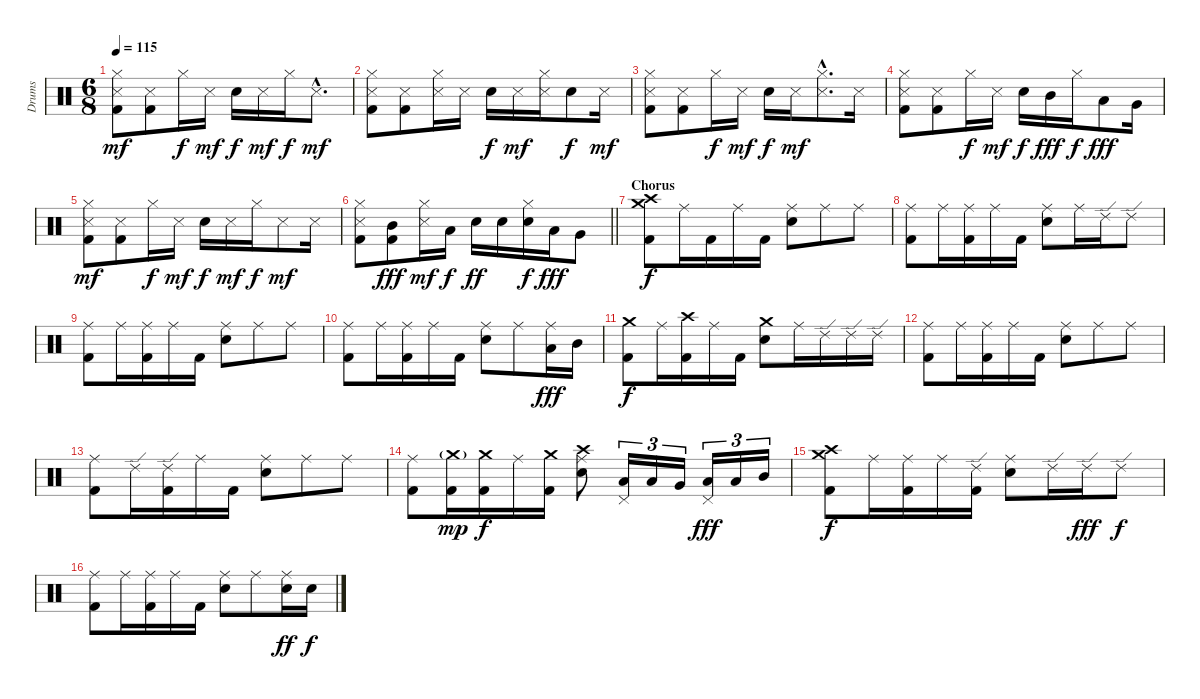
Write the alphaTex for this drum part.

\track ("Drums" "Drums") {instrument percussion}
\staff {score}
\articulation defaults
\ts (6 8)
\tempo 115
\clef neutral
\ks c
("Hi-Hat (closed)" "Snare (side stick) 3" "Kick (hit) 2").8{dy mf} ("Snare (side stick) 3" "Kick (hit) 2").8 "Hi-Hat (closed)".16{dy f} "Snare (side stick) 3".16{dy mf} "Electric Snare (hit)".16{dy f} "Snare (side stick) 3".16{dy mf} "Hi-Hat (closed)".16{dy f} "Snare (side stick) 3"{hac}.8{d dy mf} |
("Hi-Hat (closed)" "Snare (side stick) 3" "Kick (hit) 2").8 ("Snare (side stick) 3" "Kick (hit) 2").8 ("Hi-Hat (closed)" "Snare (side stick) 3").16 "Snare (side stick) 3".16 "Electric Snare (hit)".16{dy f} "Snare (side stick) 3".16{dy mf} ("Hi-Hat (closed)" "Snare (side stick) 3").16 "Electric Snare (hit)".8{dy f} "Snare (side stick) 3".16{dy mf} |
("Hi-Hat (closed)" "Snare (side stick) 3" "Kick (hit) 2").8 ("Snare (side stick) 3" "Kick (hit) 2").8 "Hi-Hat (closed)".16{dy f} "Snare (side stick) 3".16{dy mf} "Electric Snare (hit)".16{dy f} "Snare (side stick) 3".16{dy mf} ("Hi-Hat (closed)"{hac} "Snare (side stick) 3"{hac}).8{d} "Snare (side stick) 3".16 |
("Hi-Hat (closed)" "Snare (side stick) 3" "Kick (hit) 2").8 ("Snare (side stick) 3" "Kick (hit) 2").8 "Hi-Hat (closed)".16{dy f} "Snare (side stick) 3".16{dy mf} "Electric Snare (hit)".16{dy f} "Mid Tom (hit)".16{dy fff} "Hi-Hat (closed)".16{dy f} "Low Tom (hit)".8{dy fff} "Very Low Tom (hit)".16 |
("Hi-Hat (closed)" "Snare (side stick) 3" "Kick (hit) 2").8{dy mf} ("Snare (side stick) 3" "Kick (hit) 2").8 "Hi-Hat (closed)".16{dy f} "Snare (side stick) 3".16{dy mf} "Electric Snare (hit)".16{dy f} "Snare (side stick) 3".16{dy mf} "Hi-Hat (closed)".16{dy f} "Snare (side stick) 3".8{dy mf} "Snare (side stick) 3".16 |
\barLineRight lightlight
("Hi-Hat (closed)" "Snare (side stick) 3" "Kick (hit) 2").8 ("Mid Tom (hit)" "Kick (hit) 2").8{dy fff} ("Hi-Hat (closed)" "Snare (side stick) 3").16{dy mf} "Low Tom (hit)".16{dy f} "Electric Snare (hit)".16{dy ff} "Electric Snare (hit)".16 ("Hi-Hat (closed)" "Electric Snare (hit)").16{dy f} "Low Tom (hit)".16{dy fff} "Very Low Tom (hit)".8 |
\section ("" "Chorus")
("Crash medium (hit)" "Crash high (hit)" "Kick (hit) 2").8{dy f} "Ride (middle)".16 "Kick (hit) 2".16 "Ride (middle)".16 "Kick (hit) 2".16 ("Ride (middle)" "Electric Snare (hit)").8 "Ride (middle)".8 "Ride (middle)".8 |
("Ride (middle)" "Kick (hit) 2").8 "Ride (middle)".16 ("Ride (middle)" "Kick (hit) 2").16 "Ride (middle)".16 "Kick (hit) 2".16 ("Ride (middle)" "Electric Snare (hit)").8 "Ride (middle)".16 "Ride (edge) 2".16 "Ride (edge) 2".8 |
("Ride (middle)" "Kick (hit) 2").8 "Ride (middle)".16 ("Ride (middle)" "Kick (hit) 2").16 "Ride (middle)".16 "Kick (hit) 2".16 ("Ride (middle)" "Electric Snare (hit)").8 "Ride (middle)".8 "Ride (middle)".8 |
("Ride (middle)" "Kick (hit) 2").8 "Ride (middle)".16 ("Ride (middle)" "Kick (hit) 2").16 "Ride (middle)".16 "Kick (hit) 2".16 ("Ride (middle)" "Electric Snare (hit)").8 "Ride (middle)".8 ("Ride (middle)" "Low Tom (hit)").16{dy fff} "Mid Tom (hit)".16 |
("Crash medium (hit)" "Kick (hit) 2").8{dy f} "Ride (middle)".16 ("Crash high (hit)" "Kick (hit) 2").16 "Ride (middle)".16 "Kick (hit) 2".16 ("Crash medium (hit)" "Electric Snare (hit)").8 "Ride (middle)".16 "Ride (edge) 2".16 "Ride (edge) 2".16 "Ride (edge) 2".16 |
("Ride (middle)" "Kick (hit) 2").8 "Ride (middle)".16 ("Ride (middle)" "Kick (hit) 2").16 "Ride (middle)".16 "Kick (hit) 2".16 ("Ride (middle)" "Electric Snare (hit)").8 "Ride (middle)".8 "Ride (middle)".8 |
("Ride (middle)" "Kick (hit) 2").8 "Ride (edge) 2".16 ("Ride (edge) 2" "Kick (hit) 2").16 "Ride (middle)".16 "Kick (hit) 2".16 ("Ride (middle)" "Electric Snare (hit)").8 "Ride (middle)".8 "Ride (middle)".8 |
("Ride (middle)" "Kick (hit) 2").8 ("Crash medium (hit)"{g} "Kick (hit) 2").16{dy mp} ("Crash medium (hit)" "Kick (hit) 2").16{dy f} "Ride (middle)".16 ("Crash medium (hit)" "Kick (hit) 2").16 ("Crash high (hit)" "Ride (middle)" "Electric Snare (hit)").8 ("Pedal Hi-Hat (hit)" "Low Tom (hit)").16{tu (3 2)} "Low Tom (hit)".16{tu (3 2)} "Very Low Tom (hit)".16{tu (3 2)} ("Pedal Hi-Hat (hit)" "Low Tom (hit)").16{tu (3 2) dy fff} "Low Tom (hit)".16{tu (3 2)} "Mid Tom (hit)".16{tu (3 2)} |
("Crash medium (hit)" "Crash high (hit)" "Kick (hit) 2").8{dy f} "Ride (middle)".16 ("Ride (middle)" "Kick (hit) 2").16 "Ride (middle)".16 ("Ride (edge) 2" "Kick (hit) 2").16 ("Ride (middle)" "Electric Snare (hit)").8 "Ride (edge) 2".16 "Ride (edge) 2".16{dy fff} "Ride (edge) 2".8{dy f} |
("Ride (middle)" "Kick (hit) 2").8 "Ride (middle)".16 ("Ride (middle)" "Kick (hit) 2").16 "Ride (middle)".16 "Kick (hit) 2".16 ("Ride (middle)" "Electric Snare (hit)").8 "Ride (middle)".8 ("Ride (middle)" "Electric Snare (hit)").16{dy ff} "Electric Snare (hit)".16{dy f}
